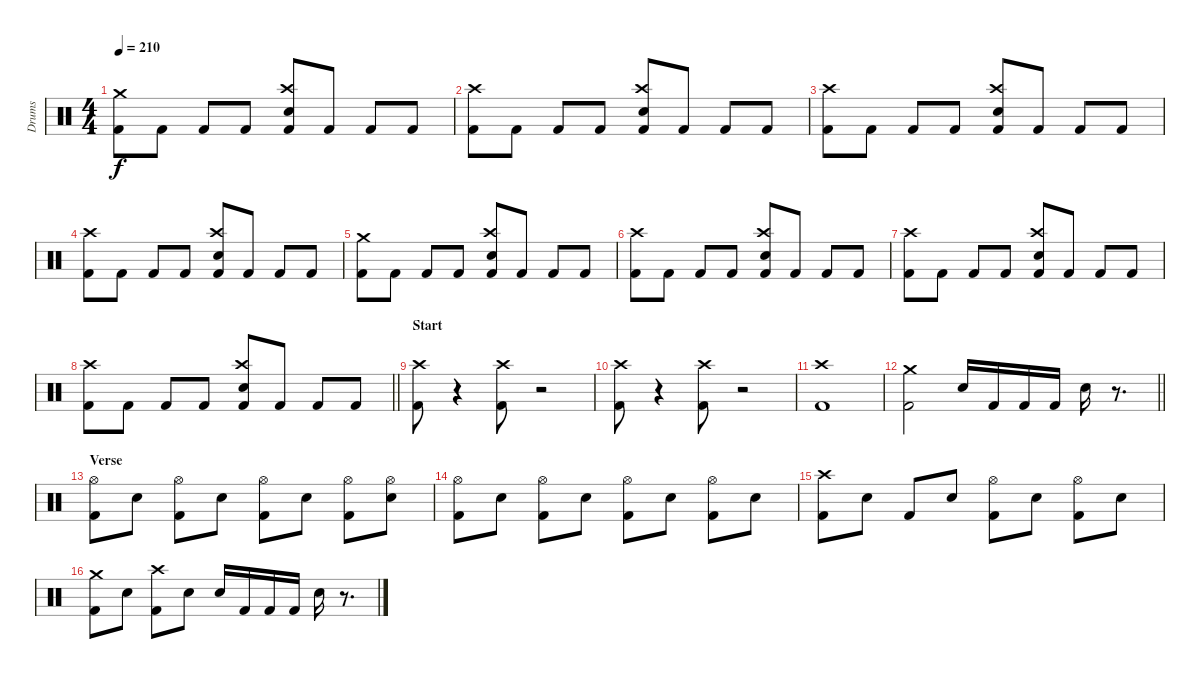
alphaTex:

\track ("Drums" "Drums") {instrument percussion}
\staff {score}
\articulation defaults
\ts (4 4)
\tempo 210
\clef neutral
\ks c
("Crash medium (hit)" "Kick (hit) 2").8{dy f} "Kick (hit) 2".8 "Kick (hit) 2".8 "Kick (hit) 2".8 ("Crash high (hit)" "Snare (hit) 2" "Kick (hit) 2").8 "Kick (hit) 2".8 "Kick (hit) 2".8 "Kick (hit) 2".8 |
("Crash high (hit)" "Kick (hit) 2").8 "Kick (hit) 2".8 "Kick (hit) 2".8 "Kick (hit) 2".8 ("Crash high (hit)" "Snare (hit) 2" "Kick (hit) 2").8 "Kick (hit) 2".8 "Kick (hit) 2".8 "Kick (hit) 2".8 |
("Crash high (hit)" "Kick (hit) 2").8 "Kick (hit) 2".8 "Kick (hit) 2".8 "Kick (hit) 2".8 ("Crash high (hit)" "Snare (hit) 2" "Kick (hit) 2").8 "Kick (hit) 2".8 "Kick (hit) 2".8 "Kick (hit) 2".8 |
("Crash high (hit)" "Kick (hit) 2").8 "Kick (hit) 2".8 "Kick (hit) 2".8 "Kick (hit) 2".8 ("Crash high (hit)" "Snare (hit) 2" "Kick (hit) 2").8 "Kick (hit) 2".8 "Kick (hit) 2".8 "Kick (hit) 2".8 |
("Crash medium (hit)" "Kick (hit) 2").8 "Kick (hit) 2".8 "Kick (hit) 2".8 "Kick (hit) 2".8 ("Crash high (hit)" "Snare (hit) 2" "Kick (hit) 2").8 "Kick (hit) 2".8 "Kick (hit) 2".8 "Kick (hit) 2".8 |
("Crash high (hit)" "Kick (hit) 2").8 "Kick (hit) 2".8 "Kick (hit) 2".8 "Kick (hit) 2".8 ("Crash high (hit)" "Snare (hit) 2" "Kick (hit) 2").8 "Kick (hit) 2".8 "Kick (hit) 2".8 "Kick (hit) 2".8 |
("Crash high (hit)" "Kick (hit) 2").8 "Kick (hit) 2".8 "Kick (hit) 2".8 "Kick (hit) 2".8 ("Crash high (hit)" "Snare (hit) 2" "Kick (hit) 2").8 "Kick (hit) 2".8 "Kick (hit) 2".8 "Kick (hit) 2".8 |
\barLineRight lightlight
("Crash high (hit)" "Kick (hit) 2").8 "Kick (hit) 2".8 "Kick (hit) 2".8 "Kick (hit) 2".8 ("Crash high (hit)" "Snare (hit) 2" "Kick (hit) 2").8 "Kick (hit) 2".8 "Kick (hit) 2".8 "Kick (hit) 2".8 |
\section ("" "Start")
("Crash high (hit)" "Kick (hit) 2").8 r.4 ("Crash high (hit)" "Kick (hit) 2").8 r.2 |
("Crash high (hit)" "Kick (hit) 2").8 r.4 ("Crash high (hit)" "Kick (hit) 2").8 r.2 |
("Crash high (hit)" "Kick (hit) 2").1 |
\barLineRight lightlight
("Crash medium (hit)" "Kick (hit) 2").2 "Snare (hit) 2".16 "Kick (hit) 2".16 "Kick (hit) 2".16 "Kick (hit) 2".16 "Snare (hit) 2".16 r.8{d} |
\section ("" "Verse")
("Hi-Hat (open)" "Kick (hit) 2").8 "Snare (hit) 2".8 ("Hi-Hat (open)" "Kick (hit) 2").8 "Snare (hit) 2".8 ("Hi-Hat (open)" "Kick (hit) 2").8 "Snare (hit) 2".8 ("Hi-Hat (open)" "Kick (hit) 2").8 ("Hi-Hat (open)" "Snare (hit) 2").8 |
("Hi-Hat (open)" "Kick (hit) 2").8 "Snare (hit) 2".8 ("Hi-Hat (open)" "Kick (hit) 2").8 "Snare (hit) 2".8 ("Hi-Hat (open)" "Kick (hit) 2").8 "Snare (hit) 2".8 ("Hi-Hat (open)" "Kick (hit) 2").8 "Snare (hit) 2".8 |
("Crash high (hit)" "Kick (hit) 2").8 "Snare (hit) 2".8 "Kick (hit) 2".8 "Snare (hit) 2".8 ("Hi-Hat (open)" "Kick (hit) 2").8 "Snare (hit) 2".8 ("Hi-Hat (open)" "Kick (hit) 2").8 "Snare (hit) 2".8 |
("Crash medium (hit)" "Kick (hit) 2").8 "Snare (hit) 2".8 ("Crash high (hit)" "Kick (hit) 2").8 "Snare (hit) 2".8 "Snare (hit) 2".16 "Kick (hit) 2".16 "Kick (hit) 2".16 "Kick (hit) 2".16 "Snare (hit) 2".16 r.8{d}
